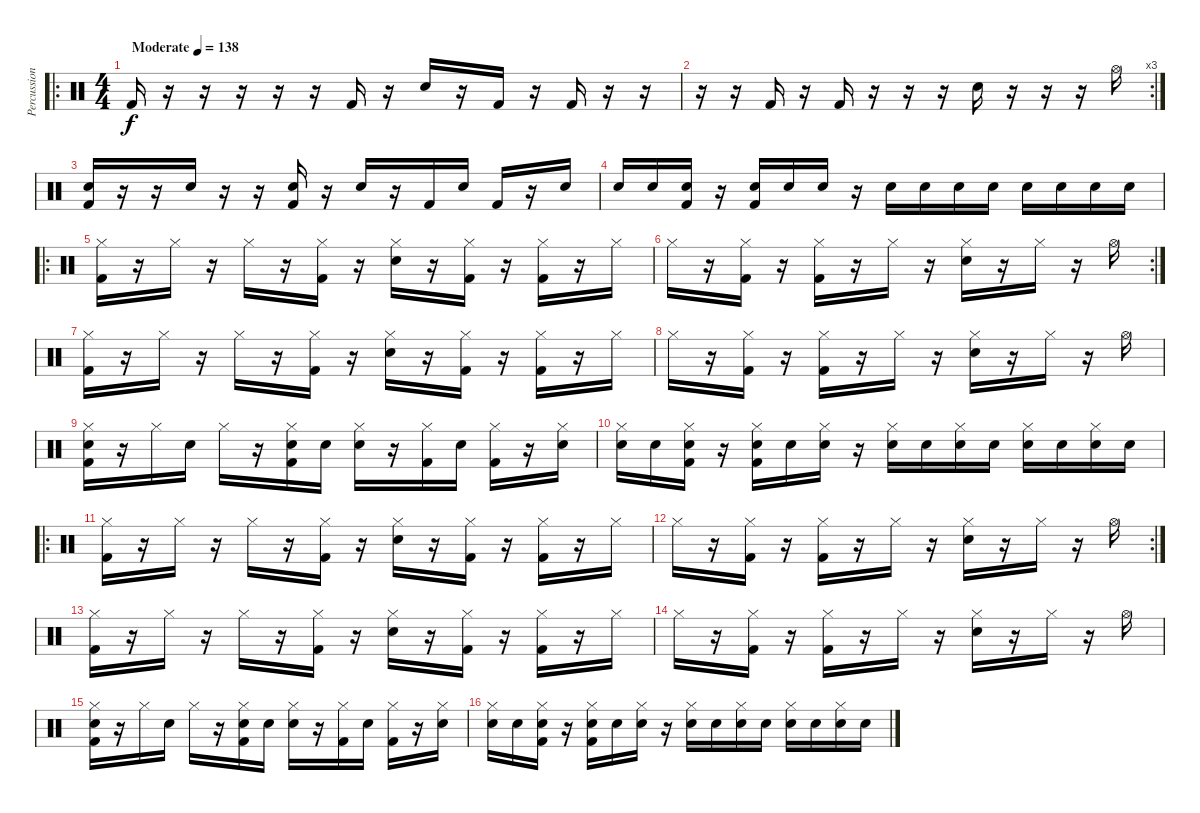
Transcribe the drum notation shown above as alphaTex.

\track ("Percussion" "Percussion") {instrument percussion}
\staff {score}
\articulation defaults
\ro
\ts (4 4)
\tempo (138 "Moderate")
\clef neutral
\ks c "Kick (hit) 2".16{dy f}
r.16 r.16 r.16 r.16 r.16 "Kick (hit) 2".16 r.16 "Hand Clap (hit)".16 r.16 "Kick (hit) 2".16 r.16 "Kick (hit) 2".16 r.16 r.16 |
\rc 3
r.16 r.16 "Kick (hit) 2".16 r.16 "Kick (hit) 2".16 r.16 r.16 r.16 "Hand Clap (hit)".16 r.16 r.16 r.16 "Hi-Hat (open)".16 |
("Kick (hit) 2" "Snare (hit) 2").16 r.16 r.16 "Snare (hit) 2".16 r.16 r.16 ("Kick (hit) 2" "Snare (hit) 2").16 r.16 "Snare (hit) 2".16 r.16 "Kick (hit) 2".16 "Snare (hit) 2".16 "Kick (hit) 2".16 r.16 "Snare (hit) 2".16 |
"Snare (hit) 2".16 "Snare (hit) 2".16 ("Kick (hit) 2" "Snare (hit) 2").16 r.16 ("Kick (hit) 2" "Snare (hit) 2").16 "Snare (hit) 2".16 "Snare (hit) 2".16 r.16 "Snare (hit) 2".16 "Snare (hit) 2".16 "Snare (hit) 2".16 "Snare (hit) 2".16 "Snare (hit) 2".16 "Snare (hit) 2".16 "Snare (hit) 2".16 "Snare (hit) 2".16 |
\ro
("Kick (hit) 2" "Hi-Hat (closed)").16 r.16 "Hi-Hat (closed)".16 r.16 "Hi-Hat (closed)".16 r.16 ("Kick (hit) 2" "Hi-Hat (closed)").16 r.16 ("Hand Clap (hit)" "Hi-Hat (closed)").16 r.16 ("Kick (hit) 2" "Hi-Hat (closed)").16 r.16 ("Kick (hit) 2" "Hi-Hat (closed)").16 r.16 "Hi-Hat (closed)".16 |
\rc 2 "Hi-Hat (closed)".16
r.16 ("Kick (hit) 2" "Hi-Hat (closed)").16 r.16 ("Kick (hit) 2" "Hi-Hat (closed)").16 r.16 "Hi-Hat (closed)".16 r.16 ("Hand Clap (hit)" "Hi-Hat (closed)").16 r.16 "Hi-Hat (closed)".16 r.16 "Hi-Hat (open)".16 |
("Kick (hit) 2" "Hi-Hat (closed)").16 r.16 "Hi-Hat (closed)".16 r.16 "Hi-Hat (closed)".16 r.16 ("Kick (hit) 2" "Hi-Hat (closed)").16 r.16 ("Hand Clap (hit)" "Hi-Hat (closed)").16 r.16 ("Kick (hit) 2" "Hi-Hat (closed)").16 r.16 ("Kick (hit) 2" "Hi-Hat (closed)").16 r.16 "Hi-Hat (closed)".16 |
"Hi-Hat (closed)".16 r.16 ("Kick (hit) 2" "Hi-Hat (closed)").16 r.16 ("Kick (hit) 2" "Hi-Hat (closed)").16 r.16 "Hi-Hat (closed)".16 r.16 ("Hand Clap (hit)" "Hi-Hat (closed)").16 r.16 "Hi-Hat (closed)".16 r.16 "Hi-Hat (open)".16 |
("Kick (hit) 2" "Snare (hit) 2" "Hi-Hat (closed)").16 r.16 "Hi-Hat (closed)".16 "Snare (hit) 2".16 "Hi-Hat (closed)".16 r.16 ("Kick (hit) 2" "Snare (hit) 2" "Hi-Hat (closed)").16 "Snare (hit) 2".16 ("Snare (hit) 2" "Hi-Hat (closed)").16 r.16 ("Kick (hit) 2" "Hi-Hat (closed)").16 "Snare (hit) 2".16 ("Kick (hit) 2" "Hi-Hat (closed)").16 r.16 ("Snare (hit) 2" "Hi-Hat (closed)").16 |
("Snare (hit) 2" "Hi-Hat (closed)").16 "Snare (hit) 2".16 ("Kick (hit) 2" "Snare (hit) 2" "Hi-Hat (closed)").16 r.16 ("Kick (hit) 2" "Snare (hit) 2" "Hi-Hat (closed)").16 "Snare (hit) 2".16 ("Snare (hit) 2" "Hi-Hat (closed)").16 r.16 ("Snare (hit) 2" "Hi-Hat (closed)").16 "Snare (hit) 2".16 ("Snare (hit) 2" "Hi-Hat (closed)").16 "Snare (hit) 2".16 ("Snare (hit) 2" "Hi-Hat (closed)").16 "Snare (hit) 2".16 ("Snare (hit) 2" "Hi-Hat (closed)").16 "Snare (hit) 2".16 |
\ro
("Kick (hit) 2" "Hi-Hat (closed)").16 r.16 "Hi-Hat (closed)".16 r.16 "Hi-Hat (closed)".16 r.16 ("Kick (hit) 2" "Hi-Hat (closed)").16 r.16 ("Hand Clap (hit)" "Hi-Hat (closed)").16 r.16 ("Kick (hit) 2" "Hi-Hat (closed)").16 r.16 ("Kick (hit) 2" "Hi-Hat (closed)").16 r.16 "Hi-Hat (closed)".16 |
\rc 2 "Hi-Hat (closed)".16
r.16 ("Kick (hit) 2" "Hi-Hat (closed)").16 r.16 ("Kick (hit) 2" "Hi-Hat (closed)").16 r.16 "Hi-Hat (closed)".16 r.16 ("Hand Clap (hit)" "Hi-Hat (closed)").16 r.16 "Hi-Hat (closed)".16 r.16 "Hi-Hat (open)".16 |
("Kick (hit) 2" "Hi-Hat (closed)").16 r.16 "Hi-Hat (closed)".16 r.16 "Hi-Hat (closed)".16 r.16 ("Kick (hit) 2" "Hi-Hat (closed)").16 r.16 ("Hand Clap (hit)" "Hi-Hat (closed)").16 r.16 ("Kick (hit) 2" "Hi-Hat (closed)").16 r.16 ("Kick (hit) 2" "Hi-Hat (closed)").16 r.16 "Hi-Hat (closed)".16 |
"Hi-Hat (closed)".16 r.16 ("Kick (hit) 2" "Hi-Hat (closed)").16 r.16 ("Kick (hit) 2" "Hi-Hat (closed)").16 r.16 "Hi-Hat (closed)".16 r.16 ("Hand Clap (hit)" "Hi-Hat (closed)").16 r.16 "Hi-Hat (closed)".16 r.16 "Hi-Hat (open)".16 |
("Kick (hit) 2" "Snare (hit) 2" "Hi-Hat (closed)").16 r.16 "Hi-Hat (closed)".16 "Snare (hit) 2".16 "Hi-Hat (closed)".16 r.16 ("Kick (hit) 2" "Snare (hit) 2" "Hi-Hat (closed)").16 "Snare (hit) 2".16 ("Snare (hit) 2" "Hi-Hat (closed)").16 r.16 ("Kick (hit) 2" "Hi-Hat (closed)").16 "Snare (hit) 2".16 ("Kick (hit) 2" "Hi-Hat (closed)").16 r.16 ("Snare (hit) 2" "Hi-Hat (closed)").16 |
("Snare (hit) 2" "Hi-Hat (closed)").16 "Snare (hit) 2".16 ("Kick (hit) 2" "Snare (hit) 2" "Hi-Hat (closed)").16 r.16 ("Kick (hit) 2" "Snare (hit) 2" "Hi-Hat (closed)").16 "Snare (hit) 2".16 ("Snare (hit) 2" "Hi-Hat (closed)").16 r.16 ("Snare (hit) 2" "Hi-Hat (closed)").16 "Snare (hit) 2".16 ("Snare (hit) 2" "Hi-Hat (closed)").16 "Snare (hit) 2".16 ("Snare (hit) 2" "Hi-Hat (closed)").16 "Snare (hit) 2".16 ("Snare (hit) 2" "Hi-Hat (closed)").16 "Snare (hit) 2".16
